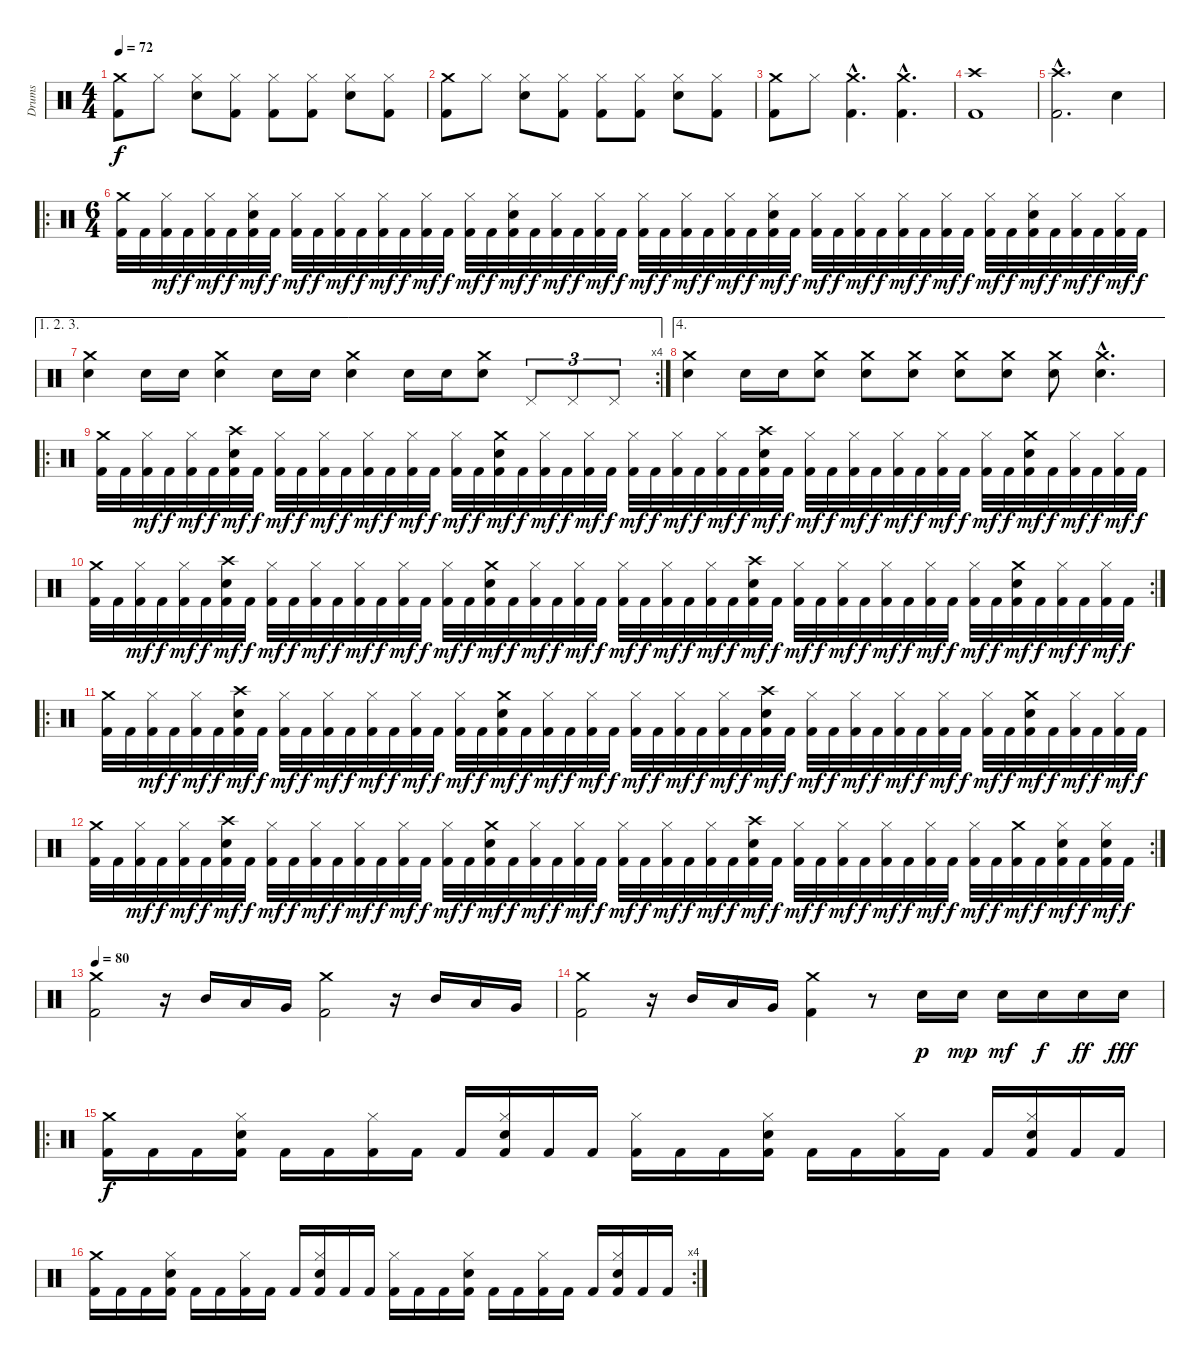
\track ("Drums" "Drums") {instrument percussion}
\staff {score}
\articulation defaults
\ts (4 4)
\tempo 72
\clef neutral
\ks c
("Crash medium (hit)" "Kick (hit) 2").8{dy f} "Hi-Hat (closed)".8 ("Hi-Hat (closed)" "Electric Snare (hit)").8 ("Hi-Hat (closed)" "Kick (hit) 2").8 ("Hi-Hat (closed)" "Kick (hit) 2").8 ("Hi-Hat (closed)" "Kick (hit) 2").8 ("Hi-Hat (closed)" "Electric Snare (hit)").8 ("Hi-Hat (closed)" "Kick (hit) 2").8 |
("Crash medium (hit)" "Kick (hit) 2").8 "Hi-Hat (closed)".8 ("Hi-Hat (closed)" "Electric Snare (hit)").8 ("Hi-Hat (closed)" "Kick (hit) 2").8 ("Hi-Hat (closed)" "Kick (hit) 2").8 ("Hi-Hat (closed)" "Kick (hit) 2").8 ("Hi-Hat (closed)" "Electric Snare (hit)").8 ("Hi-Hat (closed)" "Kick (hit) 2").8 |
("Crash medium (hit)" "Kick (hit) 2").8 "Hi-Hat (closed)".8 ("Crash medium (hit)"{hac} "Kick (hit) 2"{hac}).4{d} ("Crash medium (hit)"{hac} "Kick (hit) 2"{hac}).4{d} |
("Crash high (hit)" "Kick (hit) 2").1 |
("Crash high (hit)"{hac} "Kick (hit) 2"{hac}).2{d} "Electric Snare (hit)".4 |
\ro
\ts (6 4)
("Crash medium (hit)" "Kick (hit) 2").32 "Kick (hit) 2".32 ("Hi-Hat (closed)" "Kick (hit) 2").32{dy mf} "Kick (hit) 2".32{dy f} ("Hi-Hat (closed)" "Kick (hit) 2").32{dy mf} "Kick (hit) 2".32{dy f} ("Hi-Hat (closed)" "Electric Snare (hit)" "Kick (hit) 2").32{dy mf} "Kick (hit) 2".32{dy f} ("Hi-Hat (closed)" "Kick (hit) 2").32{dy mf} "Kick (hit) 2".32{dy f} ("Hi-Hat (closed)" "Kick (hit) 2").32{dy mf} "Kick (hit) 2".32{dy f} ("Hi-Hat (closed)" "Kick (hit) 2").32{dy mf} "Kick (hit) 2".32{dy f} ("Hi-Hat (closed)" "Kick (hit) 2").32{dy mf} "Kick (hit) 2".32{dy f} ("Hi-Hat (closed)" "Kick (hit) 2").32{dy mf} "Kick (hit) 2".32{dy f} ("Hi-Hat (closed)" "Electric Snare (hit)" "Kick (hit) 2").32{dy mf} "Kick (hit) 2".32{dy f} ("Hi-Hat (closed)" "Kick (hit) 2").32{dy mf} "Kick (hit) 2".32{dy f} ("Hi-Hat (closed)" "Kick (hit) 2").32{dy mf} "Kick (hit) 2".32{dy f} ("Hi-Hat (closed)" "Kick (hit) 2").32{dy mf} "Kick (hit) 2".32{dy f} ("Hi-Hat (closed)" "Kick (hit) 2").32{dy mf} "Kick (hit) 2".32{dy f} ("Hi-Hat (closed)" "Kick (hit) 2").32{dy mf} "Kick (hit) 2".32{dy f} ("Hi-Hat (closed)" "Electric Snare (hit)" "Kick (hit) 2").32{dy mf} "Kick (hit) 2".32{dy f} ("Hi-Hat (closed)" "Kick (hit) 2").32{dy mf} "Kick (hit) 2".32{dy f} ("Hi-Hat (closed)" "Kick (hit) 2").32{dy mf} "Kick (hit) 2".32{dy f} ("Hi-Hat (closed)" "Kick (hit) 2").32{dy mf} "Kick (hit) 2".32{dy f} ("Hi-Hat (closed)" "Kick (hit) 2").32{dy mf} "Kick (hit) 2".32{dy f} ("Hi-Hat (closed)" "Kick (hit) 2").32{dy mf} "Kick (hit) 2".32{dy f} ("Hi-Hat (closed)" "Electric Snare (hit)" "Kick (hit) 2").32{dy mf} "Kick (hit) 2".32{dy f} ("Hi-Hat (closed)" "Kick (hit) 2").32{dy mf} "Kick (hit) 2".32{dy f} ("Hi-Hat (closed)" "Kick (hit) 2").32{dy mf} "Kick (hit) 2".32{dy f} |
\ae (1 2 3)
\rc 4
("Crash medium (hit)" "Electric Snare (hit)").4 "Electric Snare (hit)".16 "Electric Snare (hit)".16 ("Crash medium (hit)" "Electric Snare (hit)").4 "Electric Snare (hit)".16 "Electric Snare (hit)".16 ("Crash medium (hit)" "Electric Snare (hit)").4 "Electric Snare (hit)".16 "Electric Snare (hit)".16 ("Crash medium (hit)" "Electric Snare (hit)").8 "Pedal Hi-Hat (hit)".8{tu (3 2)} "Pedal Hi-Hat (hit)".8{tu (3 2)} "Pedal Hi-Hat (hit)".8{tu (3 2)} |
\ae 4
("Crash medium (hit)" "Electric Snare (hit)").4 "Electric Snare (hit)".16 "Electric Snare (hit)".16 ("Crash medium (hit)" "Electric Snare (hit)").8 ("Crash medium (hit)" "Electric Snare (hit)").8 ("Crash medium (hit)" "Electric Snare (hit)").8 ("Crash medium (hit)" "Electric Snare (hit)").8 ("Crash medium (hit)" "Electric Snare (hit)").8 ("Crash medium (hit)" "Electric Snare (hit)").8 ("Crash medium (hit)"{hac} "Electric Snare (hit)"{hac}).4{d} |
\ro
("Crash medium (hit)" "Kick (hit) 2").32 "Kick (hit) 2".32 ("Hi-Hat (closed)" "Kick (hit) 2").32{dy mf} "Kick (hit) 2".32{dy f} ("Hi-Hat (closed)" "Kick (hit) 2").32{dy mf} "Kick (hit) 2".32{dy f} ("Crash high (hit)" "Electric Snare (hit)" "Kick (hit) 2").32{dy mf} "Kick (hit) 2".32{dy f} ("Hi-Hat (closed)" "Kick (hit) 2").32{dy mf} "Kick (hit) 2".32{dy f} ("Hi-Hat (closed)" "Kick (hit) 2").32{dy mf} "Kick (hit) 2".32{dy f} ("Hi-Hat (closed)" "Kick (hit) 2").32{dy mf} "Kick (hit) 2".32{dy f} ("Hi-Hat (closed)" "Kick (hit) 2").32{dy mf} "Kick (hit) 2".32{dy f} ("Hi-Hat (closed)" "Kick (hit) 2").32{dy mf} "Kick (hit) 2".32{dy f} ("Crash medium (hit)" "Electric Snare (hit)" "Kick (hit) 2").32{dy mf} "Kick (hit) 2".32{dy f} ("Hi-Hat (closed)" "Kick (hit) 2").32{dy mf} "Kick (hit) 2".32{dy f} ("Hi-Hat (closed)" "Kick (hit) 2").32{dy mf} "Kick (hit) 2".32{dy f} ("Hi-Hat (closed)" "Kick (hit) 2").32{dy mf} "Kick (hit) 2".32{dy f} ("Hi-Hat (closed)" "Kick (hit) 2").32{dy mf} "Kick (hit) 2".32{dy f} ("Hi-Hat (closed)" "Kick (hit) 2").32{dy mf} "Kick (hit) 2".32{dy f} ("Crash high (hit)" "Electric Snare (hit)" "Kick (hit) 2").32{dy mf} "Kick (hit) 2".32{dy f} ("Hi-Hat (closed)" "Kick (hit) 2").32{dy mf} "Kick (hit) 2".32{dy f} ("Hi-Hat (closed)" "Kick (hit) 2").32{dy mf} "Kick (hit) 2".32{dy f} ("Hi-Hat (closed)" "Kick (hit) 2").32{dy mf} "Kick (hit) 2".32{dy f} ("Hi-Hat (closed)" "Kick (hit) 2").32{dy mf} "Kick (hit) 2".32{dy f} ("Hi-Hat (closed)" "Kick (hit) 2").32{dy mf} "Kick (hit) 2".32{dy f} ("Crash medium (hit)" "Electric Snare (hit)" "Kick (hit) 2").32{dy mf} "Kick (hit) 2".32{dy f} ("Hi-Hat (closed)" "Kick (hit) 2").32{dy mf} "Kick (hit) 2".32{dy f} ("Hi-Hat (closed)" "Kick (hit) 2").32{dy mf} "Kick (hit) 2".32{dy f} |
\rc 2
("Crash medium (hit)" "Kick (hit) 2").32 "Kick (hit) 2".32 ("Hi-Hat (closed)" "Kick (hit) 2").32{dy mf} "Kick (hit) 2".32{dy f} ("Hi-Hat (closed)" "Kick (hit) 2").32{dy mf} "Kick (hit) 2".32{dy f} ("Crash high (hit)" "Electric Snare (hit)" "Kick (hit) 2").32{dy mf} "Kick (hit) 2".32{dy f} ("Hi-Hat (closed)" "Kick (hit) 2").32{dy mf} "Kick (hit) 2".32{dy f} ("Hi-Hat (closed)" "Kick (hit) 2").32{dy mf} "Kick (hit) 2".32{dy f} ("Hi-Hat (closed)" "Kick (hit) 2").32{dy mf} "Kick (hit) 2".32{dy f} ("Hi-Hat (closed)" "Kick (hit) 2").32{dy mf} "Kick (hit) 2".32{dy f} ("Hi-Hat (closed)" "Kick (hit) 2").32{dy mf} "Kick (hit) 2".32{dy f} ("Crash medium (hit)" "Electric Snare (hit)" "Kick (hit) 2").32{dy mf} "Kick (hit) 2".32{dy f} ("Hi-Hat (closed)" "Kick (hit) 2").32{dy mf} "Kick (hit) 2".32{dy f} ("Hi-Hat (closed)" "Kick (hit) 2").32{dy mf} "Kick (hit) 2".32{dy f} ("Hi-Hat (closed)" "Kick (hit) 2").32{dy mf} "Kick (hit) 2".32{dy f} ("Hi-Hat (closed)" "Kick (hit) 2").32{dy mf} "Kick (hit) 2".32{dy f} ("Hi-Hat (closed)" "Kick (hit) 2").32{dy mf} "Kick (hit) 2".32{dy f} ("Crash high (hit)" "Electric Snare (hit)" "Kick (hit) 2").32{dy mf} "Kick (hit) 2".32{dy f} ("Hi-Hat (closed)" "Kick (hit) 2").32{dy mf} "Kick (hit) 2".32{dy f} ("Hi-Hat (closed)" "Kick (hit) 2").32{dy mf} "Kick (hit) 2".32{dy f} ("Hi-Hat (closed)" "Kick (hit) 2").32{dy mf} "Kick (hit) 2".32{dy f} ("Hi-Hat (closed)" "Kick (hit) 2").32{dy mf} "Kick (hit) 2".32{dy f} ("Hi-Hat (closed)" "Kick (hit) 2").32{dy mf} "Kick (hit) 2".32{dy f} ("Crash medium (hit)" "Electric Snare (hit)" "Kick (hit) 2").32{dy mf} "Kick (hit) 2".32{dy f} ("Hi-Hat (closed)" "Kick (hit) 2").32{dy mf} "Kick (hit) 2".32{dy f} ("Hi-Hat (closed)" "Kick (hit) 2").32{dy mf} "Kick (hit) 2".32{dy f} |
\ro
("Crash medium (hit)" "Kick (hit) 2").32 "Kick (hit) 2".32 ("Hi-Hat (closed)" "Kick (hit) 2").32{dy mf} "Kick (hit) 2".32{dy f} ("Hi-Hat (closed)" "Kick (hit) 2").32{dy mf} "Kick (hit) 2".32{dy f} ("Crash high (hit)" "Electric Snare (hit)" "Kick (hit) 2").32{dy mf} "Kick (hit) 2".32{dy f} ("Hi-Hat (closed)" "Kick (hit) 2").32{dy mf} "Kick (hit) 2".32{dy f} ("Hi-Hat (closed)" "Kick (hit) 2").32{dy mf} "Kick (hit) 2".32{dy f} ("Hi-Hat (closed)" "Kick (hit) 2").32{dy mf} "Kick (hit) 2".32{dy f} ("Hi-Hat (closed)" "Kick (hit) 2").32{dy mf} "Kick (hit) 2".32{dy f} ("Hi-Hat (closed)" "Kick (hit) 2").32{dy mf} "Kick (hit) 2".32{dy f} ("Crash medium (hit)" "Electric Snare (hit)" "Kick (hit) 2").32{dy mf} "Kick (hit) 2".32{dy f} ("Hi-Hat (closed)" "Kick (hit) 2").32{dy mf} "Kick (hit) 2".32{dy f} ("Hi-Hat (closed)" "Kick (hit) 2").32{dy mf} "Kick (hit) 2".32{dy f} ("Hi-Hat (closed)" "Kick (hit) 2").32{dy mf} "Kick (hit) 2".32{dy f} ("Hi-Hat (closed)" "Kick (hit) 2").32{dy mf} "Kick (hit) 2".32{dy f} ("Hi-Hat (closed)" "Kick (hit) 2").32{dy mf} "Kick (hit) 2".32{dy f} ("Crash high (hit)" "Electric Snare (hit)" "Kick (hit) 2").32{dy mf} "Kick (hit) 2".32{dy f} ("Hi-Hat (closed)" "Kick (hit) 2").32{dy mf} "Kick (hit) 2".32{dy f} ("Hi-Hat (closed)" "Kick (hit) 2").32{dy mf} "Kick (hit) 2".32{dy f} ("Hi-Hat (closed)" "Kick (hit) 2").32{dy mf} "Kick (hit) 2".32{dy f} ("Hi-Hat (closed)" "Kick (hit) 2").32{dy mf} "Kick (hit) 2".32{dy f} ("Hi-Hat (closed)" "Kick (hit) 2").32{dy mf} "Kick (hit) 2".32{dy f} ("Crash medium (hit)" "Electric Snare (hit)" "Kick (hit) 2").32{dy mf} "Kick (hit) 2".32{dy f} ("Hi-Hat (closed)" "Kick (hit) 2").32{dy mf} "Kick (hit) 2".32{dy f} ("Hi-Hat (closed)" "Kick (hit) 2").32{dy mf} "Kick (hit) 2".32{dy f} |
\rc 2
("Crash medium (hit)" "Kick (hit) 2").32 "Kick (hit) 2".32 ("Hi-Hat (closed)" "Kick (hit) 2").32{dy mf} "Kick (hit) 2".32{dy f} ("Hi-Hat (closed)" "Kick (hit) 2").32{dy mf} "Kick (hit) 2".32{dy f} ("Crash high (hit)" "Electric Snare (hit)" "Kick (hit) 2").32{dy mf} "Kick (hit) 2".32{dy f} ("Hi-Hat (closed)" "Kick (hit) 2").32{dy mf} "Kick (hit) 2".32{dy f} ("Hi-Hat (closed)" "Kick (hit) 2").32{dy mf} "Kick (hit) 2".32{dy f} ("Hi-Hat (closed)" "Kick (hit) 2").32{dy mf} "Kick (hit) 2".32{dy f} ("Hi-Hat (closed)" "Kick (hit) 2").32{dy mf} "Kick (hit) 2".32{dy f} ("Hi-Hat (closed)" "Kick (hit) 2").32{dy mf} "Kick (hit) 2".32{dy f} ("Crash medium (hit)" "Electric Snare (hit)" "Kick (hit) 2").32{dy mf} "Kick (hit) 2".32{dy f} ("Hi-Hat (closed)" "Kick (hit) 2").32{dy mf} "Kick (hit) 2".32{dy f} ("Hi-Hat (closed)" "Kick (hit) 2").32{dy mf} "Kick (hit) 2".32{dy f} ("Hi-Hat (closed)" "Kick (hit) 2").32{dy mf} "Kick (hit) 2".32{dy f} ("Hi-Hat (closed)" "Kick (hit) 2").32{dy mf} "Kick (hit) 2".32{dy f} ("Hi-Hat (closed)" "Kick (hit) 2").32{dy mf} "Kick (hit) 2".32{dy f} ("Crash high (hit)" "Electric Snare (hit)" "Kick (hit) 2").32{dy mf} "Kick (hit) 2".32{dy f} ("Hi-Hat (closed)" "Kick (hit) 2").32{dy mf} "Kick (hit) 2".32{dy f} ("Hi-Hat (closed)" "Kick (hit) 2").32{dy mf} "Kick (hit) 2".32{dy f} ("Hi-Hat (closed)" "Kick (hit) 2").32{dy mf} "Kick (hit) 2".32{dy f} ("Hi-Hat (closed)" "Kick (hit) 2").32{dy mf} "Kick (hit) 2".32{dy f} ("Hi-Hat (closed)" "Kick (hit) 2").32{dy mf} "Kick (hit) 2".32{dy f} ("Crash medium (hit)" "Kick (hit) 2").32{dy mf} "Kick (hit) 2".32{dy f} ("Hi-Hat (closed)" "Electric Snare (hit)" "Kick (hit) 2").32{dy mf} "Kick (hit) 2".32{dy f} ("Hi-Hat (closed)" "Electric Snare (hit)" "Kick (hit) 2").32{dy mf} "Kick (hit) 2".32{dy f} |
\tempo 80
("Crash medium (hit)" "Kick (hit) 2").2 r.16 "Mid Tom (hit)".16 "Low Tom (hit)".16 "Very Low Tom (hit)".16 ("Crash medium (hit)" "Kick (hit) 2").2 r.16 "Mid Tom (hit)".16 "Low Tom (hit)".16 "Very Low Tom (hit)".16 |
("Crash medium (hit)" "Kick (hit) 2").2 r.16 "Mid Tom (hit)".16 "Low Tom (hit)".16 "Very Low Tom (hit)".16 ("Crash medium (hit)" "Kick (hit) 2").4 r.8 "Electric Snare (hit)".16{dy p} "Electric Snare (hit)".16{dy mp} "Electric Snare (hit)".16{dy mf} "Electric Snare (hit)".16{dy f} "Electric Snare (hit)".16{dy ff} "Electric Snare (hit)".16{dy fff} |
\ro
("Crash medium (hit)" "Kick (hit) 2").16{dy f} "Kick (hit) 2".16 "Kick (hit) 2".16 ("Hi-Hat (closed)" "Electric Snare (hit)" "Kick (hit) 2").16 "Kick (hit) 2".16 "Kick (hit) 2".16 ("Hi-Hat (closed)" "Kick (hit) 2").16 "Kick (hit) 2".16 "Kick (hit) 2".16 ("Hi-Hat (closed)" "Electric Snare (hit)" "Kick (hit) 2").16 "Kick (hit) 2".16 "Kick (hit) 2".16 ("Hi-Hat (closed)" "Kick (hit) 2").16 "Kick (hit) 2".16 "Kick (hit) 2".16 ("Hi-Hat (closed)" "Electric Snare (hit)" "Kick (hit) 2").16 "Kick (hit) 2".16 "Kick (hit) 2".16 ("Hi-Hat (closed)" "Kick (hit) 2").16 "Kick (hit) 2".16 "Kick (hit) 2".16 ("Hi-Hat (closed)" "Electric Snare (hit)" "Kick (hit) 2").16 "Kick (hit) 2".16 "Kick (hit) 2".16 |
\rc 4
("Crash medium (hit)" "Kick (hit) 2").16 "Kick (hit) 2".16 "Kick (hit) 2".16 ("Hi-Hat (closed)" "Electric Snare (hit)" "Kick (hit) 2").16 "Kick (hit) 2".16 "Kick (hit) 2".16 ("Hi-Hat (closed)" "Kick (hit) 2").16 "Kick (hit) 2".16 "Kick (hit) 2".16 ("Hi-Hat (closed)" "Electric Snare (hit)" "Kick (hit) 2").16 "Kick (hit) 2".16 "Kick (hit) 2".16 ("Hi-Hat (closed)" "Kick (hit) 2").16 "Kick (hit) 2".16 "Kick (hit) 2".16 ("Hi-Hat (closed)" "Electric Snare (hit)" "Kick (hit) 2").16 "Kick (hit) 2".16 "Kick (hit) 2".16 ("Hi-Hat (closed)" "Kick (hit) 2").16 "Kick (hit) 2".16 "Kick (hit) 2".16 ("Hi-Hat (closed)" "Electric Snare (hit)" "Kick (hit) 2").16 "Kick (hit) 2".16 "Kick (hit) 2".16
